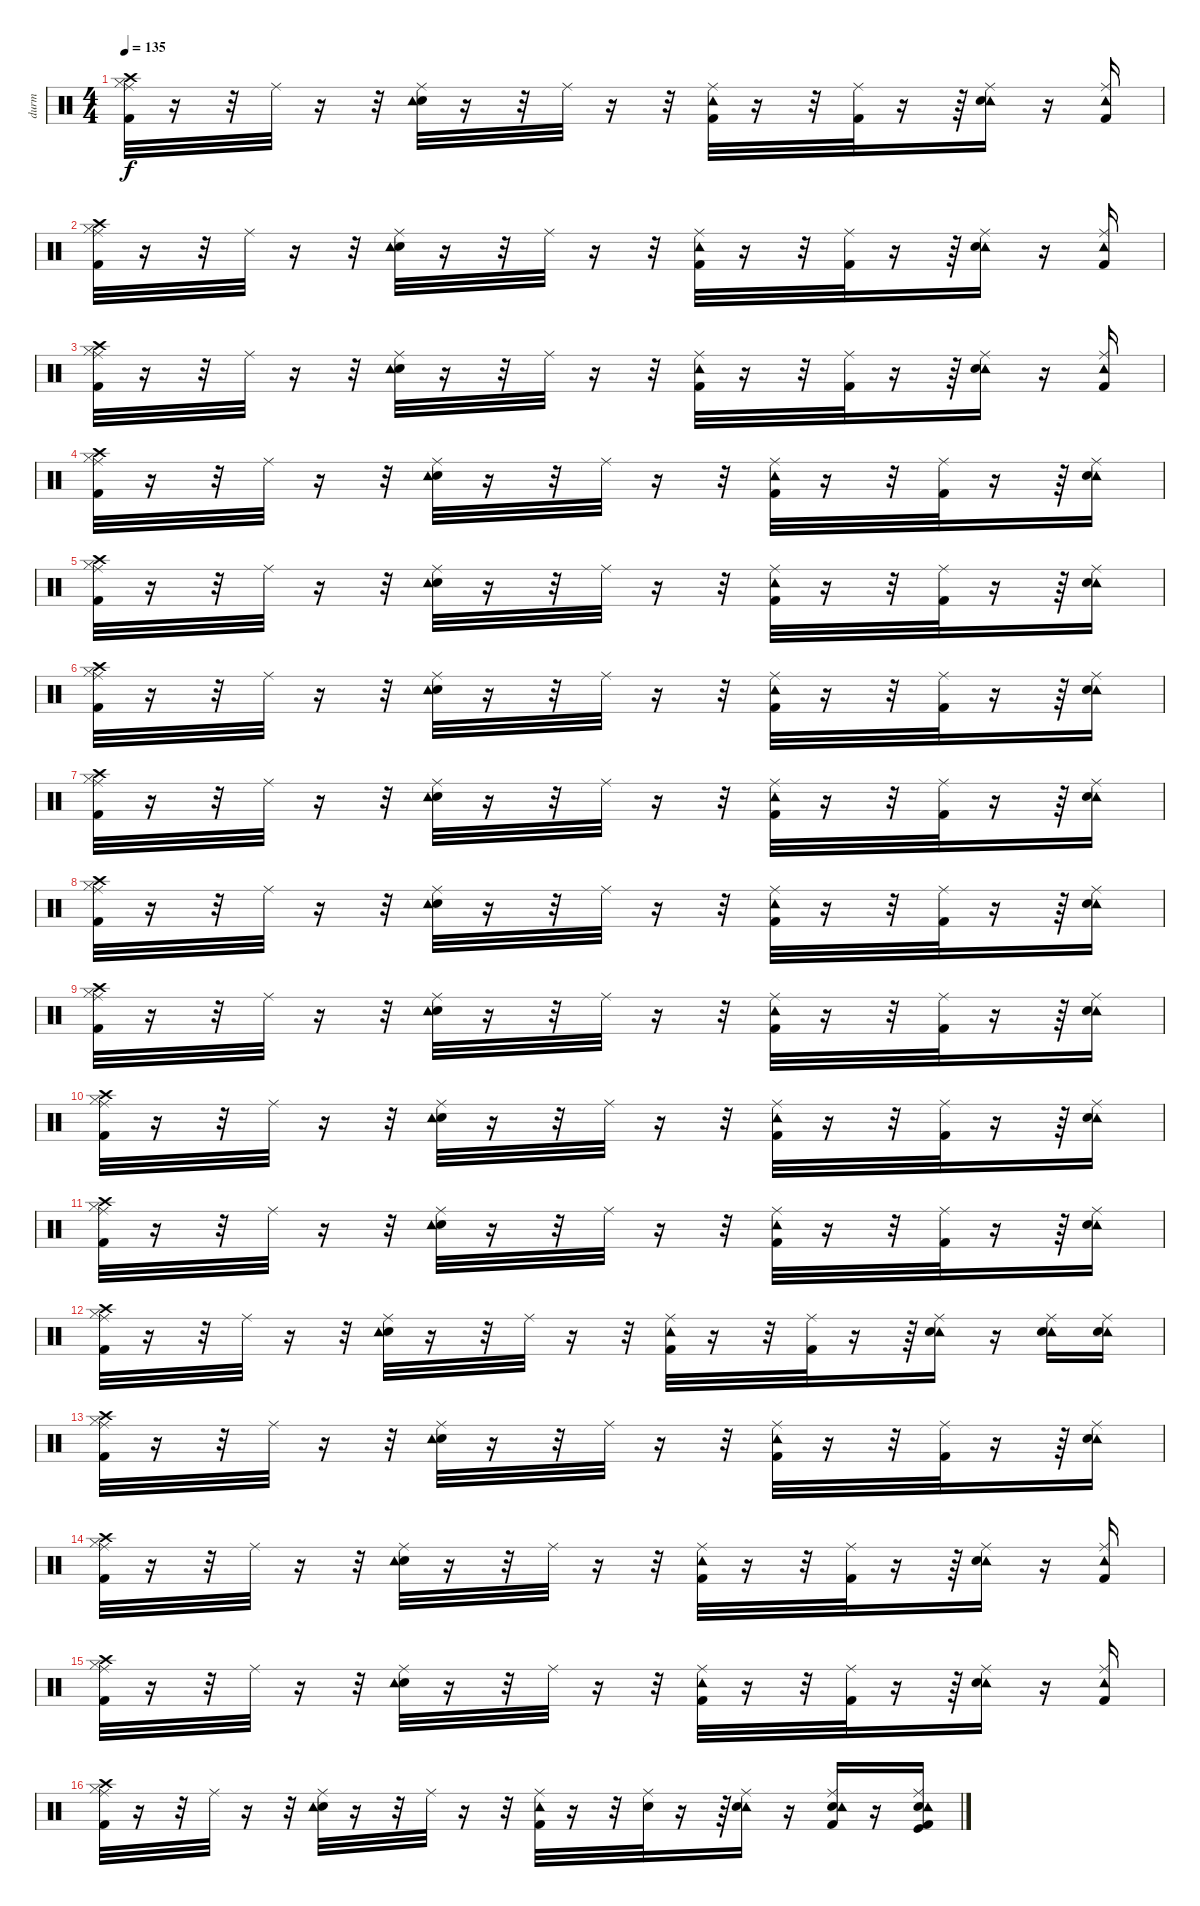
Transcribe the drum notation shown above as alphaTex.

\track ("durm" "durm") {instrument percussion}
\staff {score}
\articulation defaults
\ts (4 4)
\tempo 135
\clef neutral
\ks c
("Crash high (hit)" "Hi-Hat (closed)" "Kick (hit) 2" "Ride (middle)").32{dy f} r.16 r.32 "Ride (middle)".32 r.16 r.32 ("Electric Snare (hit)" "Ride (middle)" "Tambourine (hit)").32 r.16 r.32 "Ride (middle)".32 r.16 r.32 ("Kick (hit) 2" "Ride (middle)" "Tambourine (hit)").32 r.16 r.32 ("Kick (hit) 2" "Ride (middle)").32 r.16 r.64 ("Ride (middle)" "Tambourine (hit)" "Electric Snare (hit)").16 r.16 ("Ride (middle)" "Kick (hit) 2" "Tambourine (hit)").16 |
("Crash high (hit)" "Hi-Hat (closed)" "Kick (hit) 2" "Ride (middle)").32 r.16 r.32 "Ride (middle)".32 r.16 r.32 ("Electric Snare (hit)" "Ride (middle)" "Tambourine (hit)").32 r.16 r.32 "Ride (middle)".32 r.16 r.32 ("Kick (hit) 2" "Ride (middle)" "Tambourine (hit)").32 r.16 r.32 ("Kick (hit) 2" "Ride (middle)").32 r.16 r.64 ("Ride (middle)" "Tambourine (hit)" "Electric Snare (hit)").16 r.16 ("Ride (middle)" "Kick (hit) 2" "Tambourine (hit)").16 |
("Crash high (hit)" "Hi-Hat (closed)" "Kick (hit) 2" "Ride (middle)").32 r.16 r.32 "Ride (middle)".32 r.16 r.32 ("Electric Snare (hit)" "Ride (middle)" "Tambourine (hit)").32 r.16 r.32 "Ride (middle)".32 r.16 r.32 ("Kick (hit) 2" "Ride (middle)" "Tambourine (hit)").32 r.16 r.32 ("Kick (hit) 2" "Ride (middle)").32 r.16 r.64 ("Ride (middle)" "Tambourine (hit)" "Electric Snare (hit)").16 r.16 ("Ride (middle)" "Kick (hit) 2" "Tambourine (hit)").16 |
("Crash high (hit)" "Hi-Hat (closed)" "Kick (hit) 2" "Ride (middle)").32 r.16 r.32 "Ride (middle)".32 r.16 r.32 ("Electric Snare (hit)" "Ride (middle)" "Tambourine (hit)").32 r.16 r.32 "Ride (middle)".32 r.16 r.32 ("Kick (hit) 2" "Ride (middle)" "Tambourine (hit)").32 r.16 r.32 ("Kick (hit) 2" "Ride (middle)").32 r.16 r.64 ("Ride (middle)" "Tambourine (hit)" "Electric Snare (hit)").16 |
("Crash high (hit)" "Hi-Hat (closed)" "Kick (hit) 2" "Ride (middle)").32 r.16 r.32 "Ride (middle)".32 r.16 r.32 ("Electric Snare (hit)" "Ride (middle)" "Tambourine (hit)").32 r.16 r.32 "Ride (middle)".32 r.16 r.32 ("Kick (hit) 2" "Ride (middle)" "Tambourine (hit)").32 r.16 r.32 ("Kick (hit) 2" "Ride (middle)").32 r.16 r.64 ("Ride (middle)" "Tambourine (hit)" "Electric Snare (hit)").16 |
("Crash high (hit)" "Hi-Hat (closed)" "Kick (hit) 2" "Ride (middle)").32 r.16 r.32 "Ride (middle)".32 r.16 r.32 ("Electric Snare (hit)" "Ride (middle)" "Tambourine (hit)").32 r.16 r.32 "Ride (middle)".32 r.16 r.32 ("Kick (hit) 2" "Ride (middle)" "Tambourine (hit)").32 r.16 r.32 ("Kick (hit) 2" "Ride (middle)").32 r.16 r.64 ("Ride (middle)" "Tambourine (hit)" "Electric Snare (hit)").16 |
("Crash high (hit)" "Hi-Hat (closed)" "Kick (hit) 2" "Ride (middle)").32 r.16 r.32 "Ride (middle)".32 r.16 r.32 ("Electric Snare (hit)" "Ride (middle)" "Tambourine (hit)").32 r.16 r.32 "Ride (middle)".32 r.16 r.32 ("Kick (hit) 2" "Ride (middle)" "Tambourine (hit)").32 r.16 r.32 ("Kick (hit) 2" "Ride (middle)").32 r.16 r.64 ("Ride (middle)" "Tambourine (hit)" "Electric Snare (hit)").16 |
("Crash high (hit)" "Hi-Hat (closed)" "Kick (hit) 2" "Ride (middle)").32 r.16 r.32 "Ride (middle)".32 r.16 r.32 ("Electric Snare (hit)" "Ride (middle)" "Tambourine (hit)").32 r.16 r.32 "Ride (middle)".32 r.16 r.32 ("Kick (hit) 2" "Ride (middle)" "Tambourine (hit)").32 r.16 r.32 ("Kick (hit) 2" "Ride (middle)").32 r.16 r.64 ("Ride (middle)" "Tambourine (hit)" "Electric Snare (hit)").16 |
("Crash high (hit)" "Hi-Hat (closed)" "Kick (hit) 2" "Ride (middle)").32 r.16 r.32 "Ride (middle)".32 r.16 r.32 ("Electric Snare (hit)" "Ride (middle)" "Tambourine (hit)").32 r.16 r.32 "Ride (middle)".32 r.16 r.32 ("Kick (hit) 2" "Ride (middle)" "Tambourine (hit)").32 r.16 r.32 ("Kick (hit) 2" "Ride (middle)").32 r.16 r.64 ("Ride (middle)" "Tambourine (hit)" "Electric Snare (hit)").16 |
("Crash high (hit)" "Hi-Hat (closed)" "Kick (hit) 2" "Ride (middle)").32 r.16 r.32 "Ride (middle)".32 r.16 r.32 ("Electric Snare (hit)" "Ride (middle)" "Tambourine (hit)").32 r.16 r.32 "Ride (middle)".32 r.16 r.32 ("Kick (hit) 2" "Ride (middle)" "Tambourine (hit)").32 r.16 r.32 ("Kick (hit) 2" "Ride (middle)").32 r.16 r.64 ("Ride (middle)" "Tambourine (hit)" "Electric Snare (hit)").16 |
("Crash high (hit)" "Hi-Hat (closed)" "Kick (hit) 2" "Ride (middle)").32 r.16 r.32 "Ride (middle)".32 r.16 r.32 ("Electric Snare (hit)" "Ride (middle)" "Tambourine (hit)").32 r.16 r.32 "Ride (middle)".32 r.16 r.32 ("Kick (hit) 2" "Ride (middle)" "Tambourine (hit)").32 r.16 r.32 ("Kick (hit) 2" "Ride (middle)").32 r.16 r.64 ("Ride (middle)" "Tambourine (hit)" "Electric Snare (hit)").16 |
("Crash high (hit)" "Hi-Hat (closed)" "Kick (hit) 2" "Ride (middle)").32 r.16 r.32 "Ride (middle)".32 r.16 r.32 ("Electric Snare (hit)" "Ride (middle)" "Tambourine (hit)").32 r.16 r.32 "Ride (middle)".32 r.16 r.32 ("Kick (hit) 2" "Ride (middle)" "Tambourine (hit)").32 r.16 r.32 ("Kick (hit) 2" "Ride (middle)").32 r.16 r.64 ("Ride (middle)" "Tambourine (hit)" "Electric Snare (hit)").16 r.16 ("Ride (middle)" "Tambourine (hit)" "Electric Snare (hit)").16 ("Ride (middle)" "Tambourine (hit)" "Electric Snare (hit)").16 |
("Crash high (hit)" "Hi-Hat (closed)" "Kick (hit) 2" "Ride (middle)").32 r.16 r.32 "Ride (middle)".32 r.16 r.32 ("Electric Snare (hit)" "Ride (middle)" "Tambourine (hit)").32 r.16 r.32 "Ride (middle)".32 r.16 r.32 ("Kick (hit) 2" "Ride (middle)" "Tambourine (hit)").32 r.16 r.32 ("Kick (hit) 2" "Ride (middle)").32 r.16 r.64 ("Ride (middle)" "Tambourine (hit)" "Electric Snare (hit)").16 |
("Crash high (hit)" "Hi-Hat (closed)" "Kick (hit) 2" "Ride (middle)").32 r.16 r.32 "Ride (middle)".32 r.16 r.32 ("Electric Snare (hit)" "Ride (middle)" "Tambourine (hit)").32 r.16 r.32 "Ride (middle)".32 r.16 r.32 ("Kick (hit) 2" "Ride (middle)" "Tambourine (hit)").32 r.16 r.32 ("Kick (hit) 2" "Ride (middle)").32 r.16 r.64 ("Ride (middle)" "Tambourine (hit)" "Electric Snare (hit)").16 r.16 ("Ride (middle)" "Kick (hit) 2" "Tambourine (hit)").16 |
("Crash high (hit)" "Hi-Hat (closed)" "Kick (hit) 2" "Ride (middle)").32 r.16 r.32 "Ride (middle)".32 r.16 r.32 ("Electric Snare (hit)" "Ride (middle)" "Tambourine (hit)").32 r.16 r.32 "Ride (middle)".32 r.16 r.32 ("Kick (hit) 2" "Ride (middle)" "Tambourine (hit)").32 r.16 r.32 ("Kick (hit) 2" "Ride (middle)").32 r.16 r.64 ("Ride (middle)" "Tambourine (hit)" "Electric Snare (hit)").16 r.16 ("Ride (middle)" "Kick (hit) 2" "Tambourine (hit)").16 |
("Crash high (hit)" "Hi-Hat (closed)" "Kick (hit) 2" "Ride (middle)").32 r.16 r.32 "Ride (middle)".32 r.16 r.32 ("Electric Snare (hit)" "Ride (middle)" "Tambourine (hit)").32 r.16 r.32 "Ride (middle)".32 r.16 r.32 ("Kick (hit) 2" "Ride (middle)" "Tambourine (hit)").32 r.16 r.32 ("Electric Snare (hit)" "Ride (middle)").32 r.16 r.64 ("Ride (middle)" "Tambourine (hit)" "Electric Snare (hit)").16 r.16 ("Ride (middle)" "Kick (hit) 2" "Electric Snare (hit)" "Tambourine (hit)").16 r.16 ("Ride (middle)" "Kick (hit) 2" "Electric Snare (hit)" "Tambourine (hit)" "Kick (hit)").16
